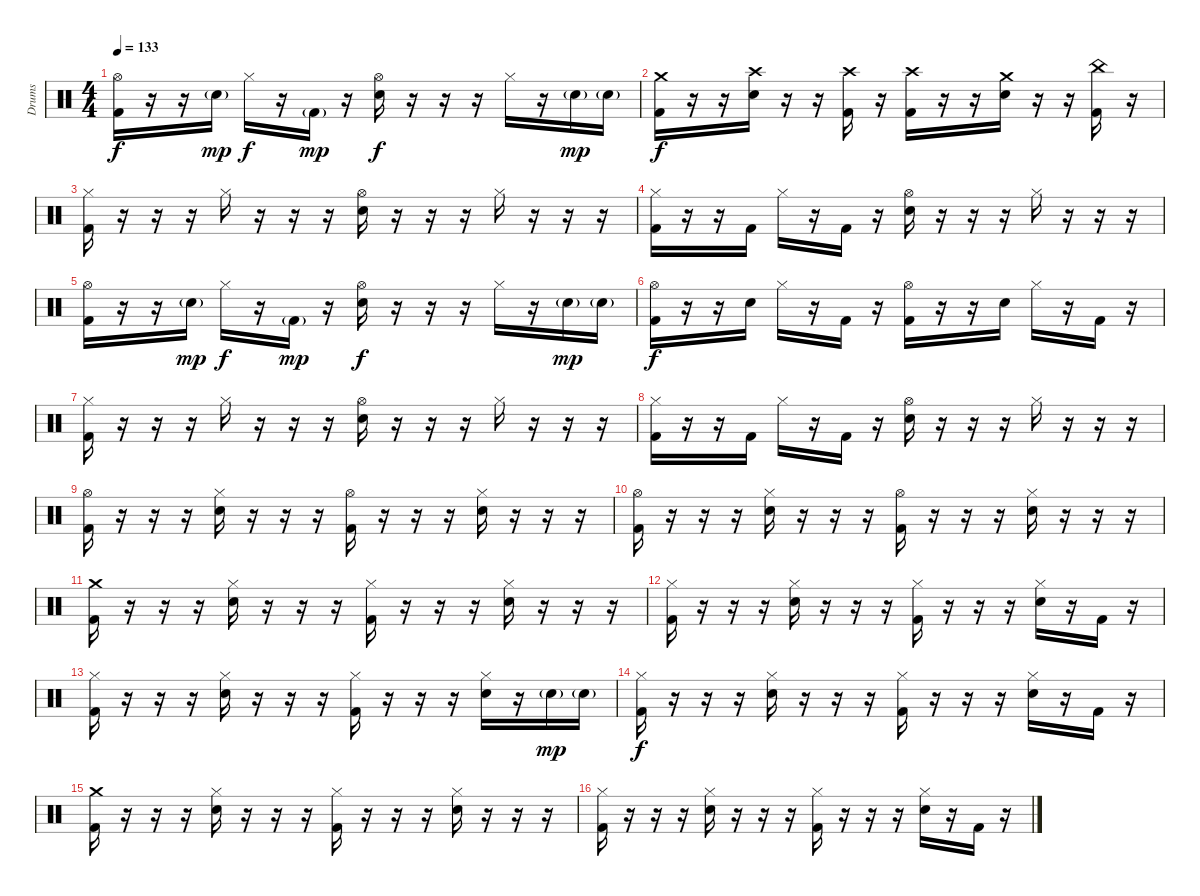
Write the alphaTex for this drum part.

\track ("Drums" "Drums") {instrument percussion}
\staff {score}
\articulation defaults
\ts (4 4)
\tempo 133
\clef neutral
\ks c
("Hi-Hat (open)" "Kick (hit) 2").16{dy f} r.16 r.16 "Snare (hit) 2"{g}.16{dy mp} "Hi-Hat (closed)".16{dy f} r.16 "Kick (hit) 2"{g}.16{dy mp} r.16 ("Hi-Hat (open)" "Snare (hit) 2").16{dy f} r.16 r.16 r.16 "Hi-Hat (closed)".16 r.16 "Snare (hit) 2"{g}.16{dy mp} "Snare (hit) 2"{g}.16 |
("Crash medium (hit)" "Kick (hit) 2").16{dy f} r.16 r.16 ("Crash high (hit)" "Snare (hit) 2").16 r.16 r.16 ("Crash high (hit)" "Kick (hit) 2").16 r.16 ("Crash high (hit)" "Kick (hit) 2").16 r.16 r.16 ("Crash medium (hit)" "Snare (hit) 2").16 r.16 r.16 ("China (hit)" "Kick (hit) 2").16 r.16 |
("Hi-Hat (closed)" "Kick (hit) 2").16 r.16 r.16 r.16 "Hi-Hat (closed)".16 r.16 r.16 r.16 ("Hi-Hat (open)" "Snare (hit) 2").16 r.16 r.16 r.16 "Hi-Hat (closed)".16 r.16 r.16 r.16 |
("Hi-Hat (closed)" "Kick (hit) 2").16 r.16 r.16 "Kick (hit) 2".16 "Hi-Hat (closed)".16 r.16 "Kick (hit) 2".16 r.16 ("Hi-Hat (open)" "Snare (hit) 2").16 r.16 r.16 r.16 "Hi-Hat (closed)".16 r.16 r.16 r.16 |
("Hi-Hat (open)" "Kick (hit) 2").16 r.16 r.16 "Snare (hit) 2"{g}.16{dy mp} "Hi-Hat (closed)".16{dy f} r.16 "Kick (hit) 2"{g}.16{dy mp} r.16 ("Hi-Hat (open)" "Snare (hit) 2").16{dy f} r.16 r.16 r.16 "Hi-Hat (closed)".16 r.16 "Snare (hit) 2"{g}.16{dy mp} "Snare (hit) 2"{g}.16 |
("Hi-Hat (open)" "Kick (hit) 2").16{dy f} r.16 r.16 "Snare (hit) 2".16 "Hi-Hat (closed)".16 r.16 "Kick (hit) 2".16 r.16 ("Hi-Hat (open)" "Kick (hit) 2").16 r.16 r.16 "Snare (hit) 2".16 "Hi-Hat (closed)".16 r.16 "Kick (hit) 2".16 r.16 |
("Hi-Hat (closed)" "Kick (hit) 2").16 r.16 r.16 r.16 "Hi-Hat (closed)".16 r.16 r.16 r.16 ("Hi-Hat (open)" "Snare (hit) 2").16 r.16 r.16 r.16 "Hi-Hat (closed)".16 r.16 r.16 r.16 |
("Hi-Hat (closed)" "Kick (hit) 2").16 r.16 r.16 "Kick (hit) 2".16 "Hi-Hat (closed)".16 r.16 "Kick (hit) 2".16 r.16 ("Hi-Hat (open)" "Snare (hit) 2").16 r.16 r.16 r.16 "Hi-Hat (closed)".16 r.16 r.16 r.16 |
("Hi-Hat (open)" "Kick (hit) 2").16 r.16 r.16 r.16 ("Hi-Hat (closed)" "Snare (hit) 2").16 r.16 r.16 r.16 ("Hi-Hat (open)" "Kick (hit) 2").16 r.16 r.16 r.16 ("Hi-Hat (closed)" "Snare (hit) 2").16 r.16 r.16 r.16 |
("Hi-Hat (open)" "Kick (hit) 2").16 r.16 r.16 r.16 ("Hi-Hat (closed)" "Snare (hit) 2").16 r.16 r.16 r.16 ("Hi-Hat (open)" "Kick (hit) 2").16 r.16 r.16 r.16 ("Hi-Hat (closed)" "Snare (hit) 2").16 r.16 r.16 r.16 |
("Crash medium (hit)" "Kick (hit) 2").16 r.16 r.16 r.16 ("Hi-Hat (closed)" "Snare (hit) 2").16 r.16 r.16 r.16 ("Hi-Hat (closed)" "Kick (hit) 2").16 r.16 r.16 r.16 ("Hi-Hat (closed)" "Snare (hit) 2").16 r.16 r.16 r.16 |
("Hi-Hat (closed)" "Kick (hit) 2").16 r.16 r.16 r.16 ("Hi-Hat (closed)" "Snare (hit) 2").16 r.16 r.16 r.16 ("Hi-Hat (closed)" "Kick (hit) 2").16 r.16 r.16 r.16 ("Hi-Hat (closed)" "Snare (hit) 2").16 r.16 "Kick (hit) 2".16 r.16 |
("Hi-Hat (closed)" "Kick (hit) 2").16 r.16 r.16 r.16 ("Hi-Hat (closed)" "Snare (hit) 2").16 r.16 r.16 r.16 ("Hi-Hat (closed)" "Kick (hit) 2").16 r.16 r.16 r.16 ("Hi-Hat (closed)" "Snare (hit) 2").16 r.16 "Snare (hit) 2"{g}.16{dy mp} "Snare (hit) 2"{g}.16 |
("Hi-Hat (closed)" "Kick (hit) 2").16{dy f} r.16 r.16 r.16 ("Hi-Hat (closed)" "Snare (hit) 2").16 r.16 r.16 r.16 ("Hi-Hat (closed)" "Kick (hit) 2").16 r.16 r.16 r.16 ("Hi-Hat (closed)" "Snare (hit) 2").16 r.16 "Kick (hit) 2".16 r.16 |
("Crash medium (hit)" "Kick (hit) 2").16 r.16 r.16 r.16 ("Hi-Hat (closed)" "Snare (hit) 2").16 r.16 r.16 r.16 ("Hi-Hat (closed)" "Kick (hit) 2").16 r.16 r.16 r.16 ("Hi-Hat (closed)" "Snare (hit) 2").16 r.16 r.16 r.16 |
("Hi-Hat (closed)" "Kick (hit) 2").16 r.16 r.16 r.16 ("Hi-Hat (closed)" "Snare (hit) 2").16 r.16 r.16 r.16 ("Hi-Hat (closed)" "Kick (hit) 2").16 r.16 r.16 r.16 ("Hi-Hat (closed)" "Snare (hit) 2").16 r.16 "Kick (hit) 2".16 r.16
